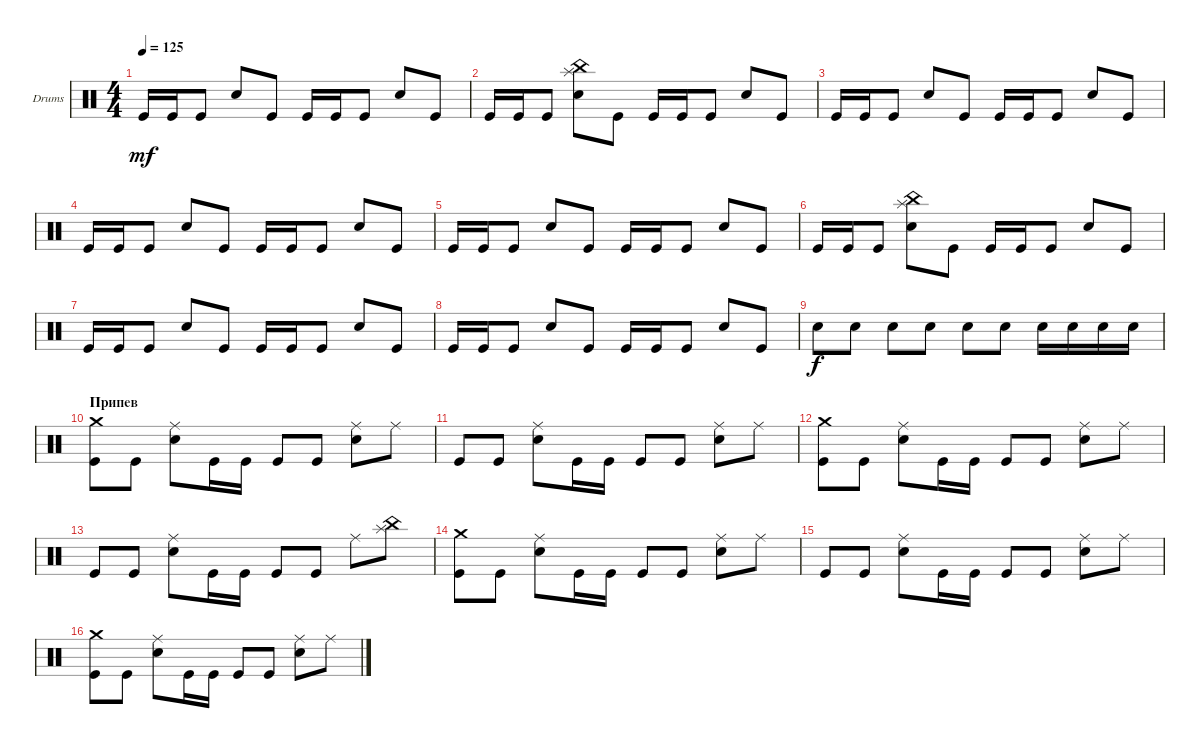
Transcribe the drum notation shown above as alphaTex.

\defaultSystemsLayout 4
\bracketExtendMode groupsimilarinstruments
\firstSystemTrackNameOrientation horizontal
\otherSystemsTrackNameOrientation horizontal
\track ("Drumkit" "Drums") {instrument percussion}
\staff {score}
\articulation defaults
\ts (4 4)
\tempo 125
\clef neutral
\ks c "Kick (hit)".16{dy mf} "Kick (hit)".16 "Kick (hit)".8 "Snare (hit) 2".8 "Kick (hit)".8 "Kick (hit)".16 "Kick (hit)".16 "Kick (hit)".8 "Snare (hit) 2".8 "Kick (hit)".8
|
"Kick (hit)".16 "Kick (hit)".16 "Kick (hit)".8 ("Snare (hit) 2" "China (hit)" "Splash (hit)").8 "Kick (hit)".8 "Kick (hit)".16 "Kick (hit)".16 "Kick (hit)".8 "Snare (hit) 2".8 "Kick (hit)".8 |
"Kick (hit)".16 "Kick (hit)".16 "Kick (hit)".8 "Snare (hit) 2".8 "Kick (hit)".8 "Kick (hit)".16 "Kick (hit)".16 "Kick (hit)".8 "Snare (hit) 2".8 "Kick (hit)".8 |
"Kick (hit)".16 "Kick (hit)".16 "Kick (hit)".8 "Snare (hit) 2".8 "Kick (hit)".8 "Kick (hit)".16 "Kick (hit)".16 "Kick (hit)".8 "Snare (hit) 2".8 "Kick (hit)".8 |
"Kick (hit)".16 "Kick (hit)".16 "Kick (hit)".8 "Snare (hit) 2".8 "Kick (hit)".8 "Kick (hit)".16 "Kick (hit)".16 "Kick (hit)".8 "Snare (hit) 2".8 "Kick (hit)".8 |
"Kick (hit)".16 "Kick (hit)".16 "Kick (hit)".8 ("Snare (hit) 2" "Splash (hit)" "China (hit)").8 "Kick (hit)".8 "Kick (hit)".16 "Kick (hit)".16 "Kick (hit)".8 "Snare (hit) 2".8 "Kick (hit)".8 |
"Kick (hit)".16 "Kick (hit)".16 "Kick (hit)".8 "Snare (hit) 2".8 "Kick (hit)".8 "Kick (hit)".16 "Kick (hit)".16 "Kick (hit)".8 "Snare (hit) 2".8 "Kick (hit)".8 |
"Kick (hit)".16 "Kick (hit)".16 "Kick (hit)".8 "Snare (hit) 2".8 "Kick (hit)".8 "Kick (hit)".16 "Kick (hit)".16 "Kick (hit)".8 "Snare (hit) 2".8 "Kick (hit)".8 |
"Snare (hit) 2".8{dy f} "Snare (hit) 2".8 "Snare (hit) 2".8 "Snare (hit) 2".8 "Snare (hit) 2".8 "Snare (hit) 2".8 "Snare (hit) 2".16 "Snare (hit) 2".16 "Snare (hit) 2".16 "Snare (hit) 2".16 |
\section ("" "Припев")
("Crash medium (hit)" "Kick (hit)").8 "Kick (hit)".8 ("Snare (hit) 2" "Ride (middle)").8 "Kick (hit)".16 "Kick (hit)".16 "Kick (hit)".8 "Kick (hit)".8 ("Snare (hit) 2" "Ride (middle)").8 "Ride (middle)".8 |
"Kick (hit)".8 "Kick (hit)".8 ("Snare (hit) 2" "Ride (middle)").8 "Kick (hit)".16 "Kick (hit)".16 "Kick (hit)".8 "Kick (hit)".8 ("Snare (hit) 2" "Ride (middle)").8 "Ride (middle)".8 |
("Crash medium (hit)" "Kick (hit)").8 "Kick (hit)".8 ("Snare (hit) 2" "Ride (middle)").8 "Kick (hit)".16 "Kick (hit)".16 "Kick (hit)".8 "Kick (hit)".8 ("Snare (hit) 2" "Ride (middle)").8 "Ride (middle)".8 |
"Kick (hit)".8 "Kick (hit)".8 ("Snare (hit) 2" "Ride (middle)").8 "Kick (hit)".16 "Kick (hit)".16 "Kick (hit)".8 "Kick (hit)".8 "Ride (middle)".8 ("Splash (hit)" "China (hit)").8 |
("Crash medium (hit)" "Kick (hit)").8 "Kick (hit)".8 ("Snare (hit) 2" "Ride (middle)").8 "Kick (hit)".16 "Kick (hit)".16 "Kick (hit)".8 "Kick (hit)".8 ("Snare (hit) 2" "Ride (middle)").8 "Ride (middle)".8 |
"Kick (hit)".8 "Kick (hit)".8 ("Snare (hit) 2" "Ride (middle)").8 "Kick (hit)".16 "Kick (hit)".16 "Kick (hit)".8 "Kick (hit)".8 ("Snare (hit) 2" "Ride (middle)").8 "Ride (middle)".8 |
("Crash medium (hit)" "Kick (hit)").8 "Kick (hit)".8 ("Snare (hit) 2" "Ride (middle)").8 "Kick (hit)".16 "Kick (hit)".16 "Kick (hit)".8 "Kick (hit)".8 ("Snare (hit) 2" "Ride (middle)").8 "Ride (middle)".8
